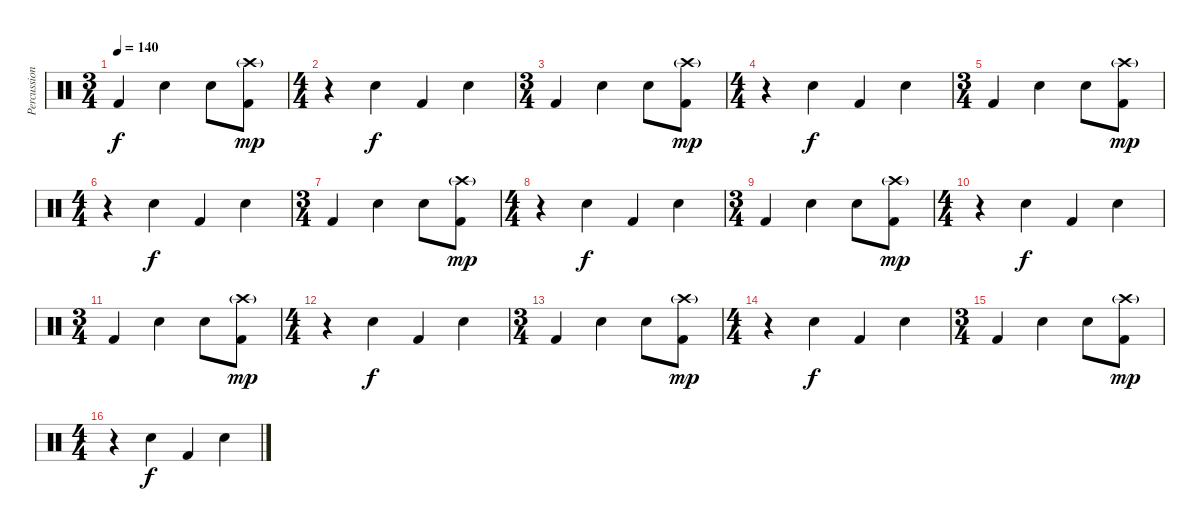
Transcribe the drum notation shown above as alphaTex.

\track ("Percussion" "Percussion") {instrument percussion}
\staff {score}
\articulation defaults
\ts (3 4)
\tempo 140
\clef neutral
\ks c "Kick (hit) 2".4{dy f} "Snare (hit) 2".4 "Snare (hit) 2".8
("Crash high (hit)"{g} "Kick (hit) 2").8{dy mp} |
\ts (4 4)
r.4 "Snare (hit) 2".4{dy f} "Kick (hit) 2".4 "Snare (hit) 2".4 |
\ts (3 4)
"Kick (hit) 2".4 "Snare (hit) 2".4 "Snare (hit) 2".8 ("Crash high (hit)"{g} "Kick (hit) 2").8{dy mp} |
\ts (4 4)
r.4 "Snare (hit) 2".4{dy f} "Kick (hit) 2".4 "Snare (hit) 2".4 |
\ts (3 4)
"Kick (hit) 2".4 "Snare (hit) 2".4 "Snare (hit) 2".8 ("Crash high (hit)"{g} "Kick (hit) 2").8{dy mp} |
\ts (4 4)
r.4 "Snare (hit) 2".4{dy f} "Kick (hit) 2".4 "Snare (hit) 2".4 |
\ts (3 4)
"Kick (hit) 2".4 "Snare (hit) 2".4 "Snare (hit) 2".8 ("Crash high (hit)"{g} "Kick (hit) 2").8{dy mp} |
\ts (4 4)
r.4 "Snare (hit) 2".4{dy f} "Kick (hit) 2".4 "Snare (hit) 2".4 |
\ts (3 4)
"Kick (hit) 2".4 "Snare (hit) 2".4 "Snare (hit) 2".8 ("Crash high (hit)"{g} "Kick (hit) 2").8{dy mp} |
\ts (4 4)
r.4 "Snare (hit) 2".4{dy f} "Kick (hit) 2".4 "Snare (hit) 2".4 |
\ts (3 4)
"Kick (hit) 2".4 "Snare (hit) 2".4 "Snare (hit) 2".8 ("Crash high (hit)"{g} "Kick (hit) 2").8{dy mp} |
\ts (4 4)
r.4 "Snare (hit) 2".4{dy f} "Kick (hit) 2".4 "Snare (hit) 2".4 |
\ts (3 4)
"Kick (hit) 2".4 "Snare (hit) 2".4 "Snare (hit) 2".8 ("Crash high (hit)"{g} "Kick (hit) 2").8{dy mp} |
\ts (4 4)
r.4 "Snare (hit) 2".4{dy f} "Kick (hit) 2".4 "Snare (hit) 2".4 |
\ts (3 4)
"Kick (hit) 2".4 "Snare (hit) 2".4 "Snare (hit) 2".8 ("Crash high (hit)"{g} "Kick (hit) 2").8{dy mp} |
\ts (4 4)
r.4 "Snare (hit) 2".4{dy f} "Kick (hit) 2".4 "Snare (hit) 2".4
